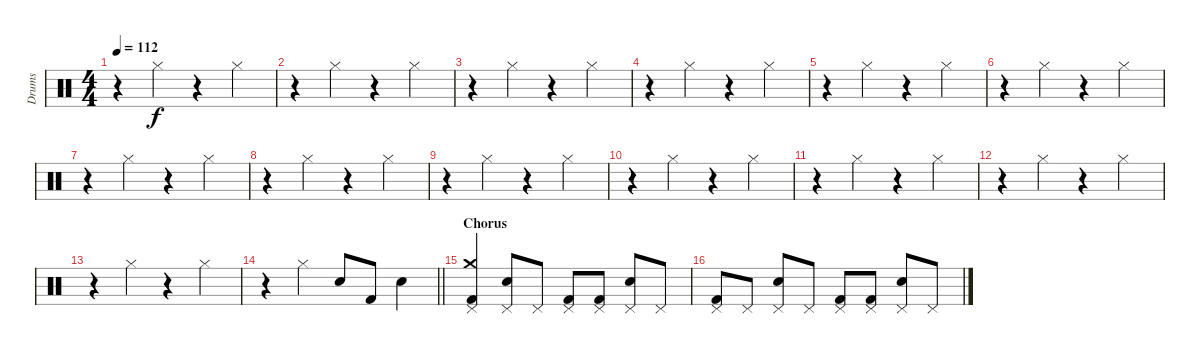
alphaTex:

\track ("Drums" "Drums") {instrument percussion}
\staff {score}
\articulation defaults
\ts (4 4)
\tempo 112
\clef neutral
\ks c
r.4{dy f} "Hi-Hat (closed)".4 r.4 "Hi-Hat (closed)".4 |
r.4 "Hi-Hat (closed)".4 r.4 "Hi-Hat (closed)".4 |
r.4 "Hi-Hat (closed)".4 r.4 "Hi-Hat (closed)".4 |
r.4 "Hi-Hat (closed)".4 r.4 "Hi-Hat (closed)".4 |
r.4 "Hi-Hat (closed)".4 r.4 "Hi-Hat (closed)".4 |
r.4 "Hi-Hat (closed)".4 r.4 "Hi-Hat (closed)".4 |
r.4 "Hi-Hat (closed)".4 r.4 "Hi-Hat (closed)".4 |
r.4 "Hi-Hat (closed)".4 r.4 "Hi-Hat (closed)".4 |
r.4 "Hi-Hat (closed)".4 r.4 "Hi-Hat (closed)".4 |
r.4 "Hi-Hat (closed)".4 r.4 "Hi-Hat (closed)".4 |
r.4 "Hi-Hat (closed)".4 r.4 "Hi-Hat (closed)".4 |
r.4 "Hi-Hat (closed)".4 r.4 "Hi-Hat (closed)".4 |
r.4 "Hi-Hat (closed)".4 r.4 "Hi-Hat (closed)".4 |
\barLineRight lightlight
r.4 "Hi-Hat (closed)".4 "Electric Snare (hit)".8 "Kick (hit) 2".8 "Electric Snare (hit)".4 |
\section ("" "Chorus")
("Crash medium (hit)" "Pedal Hi-Hat (hit)" "Kick (hit) 2").4 ("Pedal Hi-Hat (hit)" "Electric Snare (hit)").8 "Pedal Hi-Hat (hit)".8 ("Pedal Hi-Hat (hit)" "Kick (hit) 2").8 ("Pedal Hi-Hat (hit)" "Kick (hit) 2").8 ("Pedal Hi-Hat (hit)" "Electric Snare (hit)").8 "Pedal Hi-Hat (hit)".8 |
("Pedal Hi-Hat (hit)" "Kick (hit) 2").8 "Pedal Hi-Hat (hit)".8 ("Pedal Hi-Hat (hit)" "Electric Snare (hit)").8 "Pedal Hi-Hat (hit)".8 ("Pedal Hi-Hat (hit)" "Kick (hit) 2").8 ("Pedal Hi-Hat (hit)" "Kick (hit) 2").8 ("Pedal Hi-Hat (hit)" "Electric Snare (hit)").8 "Pedal Hi-Hat (hit)".8
